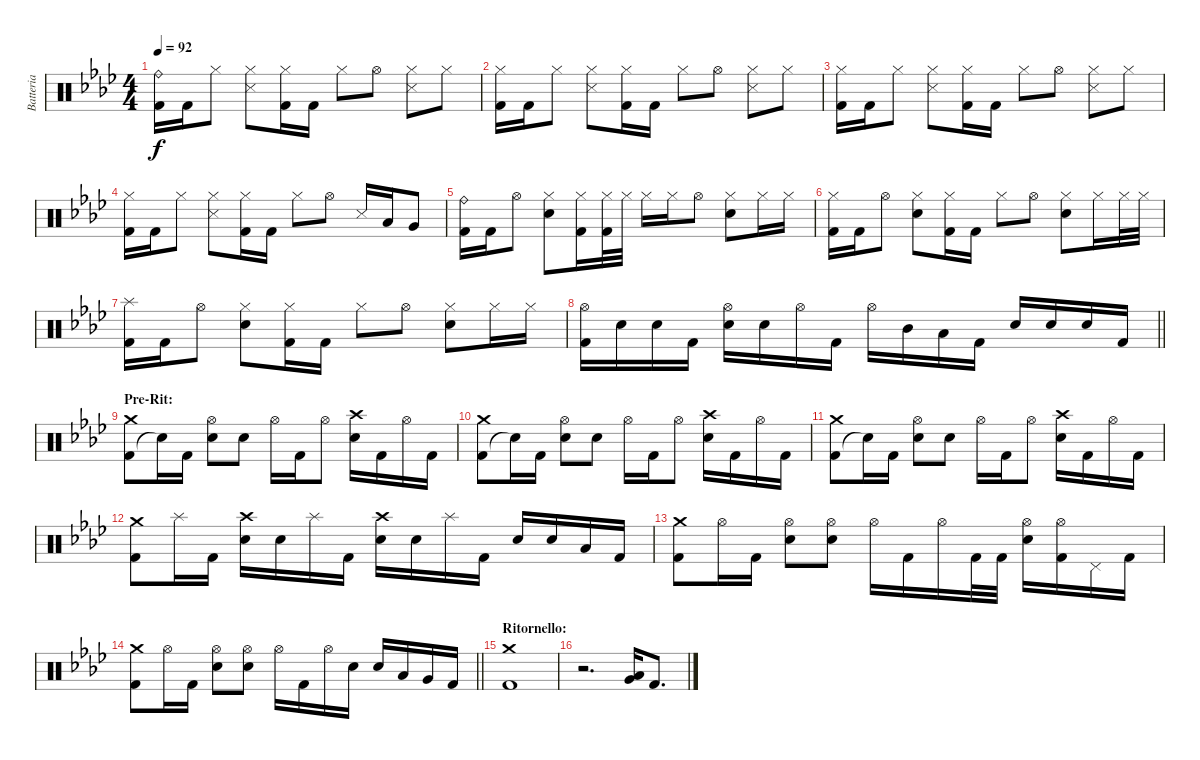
\track ("Batteria" "Batteria") {instrument percussion}
\staff {score}
\articulation defaults
\ts (4 4)
\tempo 92
\clef neutral
\ks fminor
("Kick (hit) 2" "Ride (bell)").16{dy f} "Kick (hit) 2".16 "Hi-Hat (closed)".8 ("Snare (side stick) 3" "Hi-Hat (closed)").8 ("Kick (hit) 2" "Hi-Hat (closed)").16 "Kick (hit) 2".16 "Hi-Hat (closed)".8 "Hi-Hat (open)".8 ("Snare (side stick) 3" "Hi-Hat (closed)").8 "Hi-Hat (closed)".8 |
("Kick (hit) 2" "Hi-Hat (closed)").16 "Kick (hit) 2".16 "Hi-Hat (closed)".8 ("Snare (side stick) 3" "Hi-Hat (closed)").8 ("Kick (hit) 2" "Hi-Hat (closed)").16 "Kick (hit) 2".16 "Hi-Hat (closed)".8 "Hi-Hat (open)".8 ("Snare (side stick) 3" "Hi-Hat (closed)").8 "Hi-Hat (closed)".8 |
("Kick (hit) 2" "Hi-Hat (closed)").16 "Kick (hit) 2".16 "Hi-Hat (closed)".8 ("Snare (side stick) 3" "Hi-Hat (closed)").8 ("Kick (hit) 2" "Hi-Hat (closed)").16 "Kick (hit) 2".16 "Hi-Hat (closed)".8 "Hi-Hat (open)".8 ("Snare (side stick) 3" "Hi-Hat (closed)").8 "Hi-Hat (closed)".8 |
("Kick (hit) 2" "Hi-Hat (closed)").16 "Kick (hit) 2".16 "Hi-Hat (closed)".8 ("Snare (side stick) 3" "Hi-Hat (closed)").8 ("Kick (hit) 2" "Hi-Hat (closed)").16 "Kick (hit) 2".16 "Hi-Hat (closed)".8 "Hi-Hat (open)".8 "Snare (side stick) 3".16 "Low Tom (hit)".16 "Very Low Tom (hit)".8 |
("Kick (hit) 2" "Ride (bell)").16 "Kick (hit) 2".16 "Hi-Hat (open)".8 ("Electric Snare (hit)" "Hi-Hat (closed)").8 ("Kick (hit) 2" "Hi-Hat (closed)").16 ("Kick (hit) 2" "Hi-Hat (closed)").32 "Hi-Hat (closed)".32 "Hi-Hat (closed)".16 "Hi-Hat (closed)".16 "Hi-Hat (open)".8 ("Electric Snare (hit)" "Hi-Hat (closed)").8 "Hi-Hat (closed)".16 "Hi-Hat (closed)".16 |
("Kick (hit) 2" "Hi-Hat (closed)").16 "Kick (hit) 2".16 "Hi-Hat (open)".8 ("Electric Snare (hit)" "Hi-Hat (closed)").8 ("Kick (hit) 2" "Hi-Hat (closed)").16 "Kick (hit) 2".16 "Hi-Hat (closed)".8 "Hi-Hat (open)".8 ("Electric Snare (hit)" "Hi-Hat (closed)").8 "Hi-Hat (closed)".16 "Hi-Hat (closed)".32 "Hi-Hat (closed)".32 |
("Kick (hit) 2" "Splash (hit)").16 "Kick (hit) 2".16 "Hi-Hat (open)".8 ("Electric Snare (hit)" "Hi-Hat (closed)").8 ("Kick (hit) 2" "Hi-Hat (closed)").16 "Kick (hit) 2".16 "Hi-Hat (closed)".8 "Hi-Hat (open)".8 ("Electric Snare (hit)" "Hi-Hat (closed)").8 "Hi-Hat (closed)".16 "Hi-Hat (closed)".16 |
\barLineRight lightlight
("Kick (hit) 2" "Hi-Hat (open)").16 "Electric Snare (hit)".16 "Electric Snare (hit)".16 "Kick (hit) 2".16 ("Electric Snare (hit)" "Hi-Hat (open)").16 "Electric Snare (hit)".16 "Hi-Hat (open)".16 "Kick (hit) 2".16 "Hi-Hat (open)".16 "Mid Tom (hit)".16 "Low Tom (hit)".16 "Kick (hit) 2".16 "Snare (hit) 2".16 "Snare (hit) 2".16 "Snare (hit) 2".16 "Kick (hit) 2".16 |
\section ("" "Pre-Rit:")
("Kick (hit) 2" "Crash medium (hit)").8 "Snare (hit)"{t}.16 "Kick (hit) 2".16 ("Snare (hit) 2" "Hi-Hat (open)").8 "Snare (hit) 2".8 "Hi-Hat (open)".16 "Kick (hit) 2".16 "Hi-Hat (open)".8 ("Snare (hit) 2" "Crash high (hit)").16 "Kick (hit) 2".16 "Hi-Hat (open)".16 "Kick (hit) 2".16 |
("Kick (hit) 2" "Crash medium (hit)").8 "Snare (hit)"{t}.16 "Kick (hit) 2".16 ("Snare (hit) 2" "Hi-Hat (open)").8 "Snare (hit) 2".8 "Hi-Hat (open)".16 "Kick (hit) 2".16 "Hi-Hat (open)".8 ("Snare (hit) 2" "Crash high (hit)").16 "Kick (hit) 2".16 "Hi-Hat (open)".16 "Kick (hit) 2".16 |
("Kick (hit) 2" "Crash medium (hit)").8 "Snare (hit)"{t}.16 "Kick (hit) 2".16 ("Snare (hit) 2" "Hi-Hat (open)").8 "Snare (hit) 2".8 "Hi-Hat (open)".16 "Kick (hit) 2".16 "Hi-Hat (open)".8 ("Snare (hit) 2" "Crash high (hit)").16 "Kick (hit) 2".16 "Hi-Hat (open)".16 "Kick (hit) 2".16 |
("Kick (hit) 2" "Crash medium (hit)").8 "Splash (hit)".16 "Kick (hit) 2".16 ("Snare (hit) 2" "Crash high (hit)").16 "Snare (hit) 2".16 "Splash (hit)".16 "Kick (hit) 2".16 ("Snare (hit) 2" "Crash high (hit)").16 "Snare (hit) 2".16 "Splash (hit)".16 "Kick (hit) 2".16 "Snare (hit) 2".16 "Snare (hit) 2".16 "Low Tom (hit)".16 "Kick (hit) 2".16 |
("Kick (hit) 2" "Crash medium (hit)").8 "Hi-Hat (open)".16 "Kick (hit) 2".16 ("Snare (hit) 2" "Hi-Hat (open)").8 ("Snare (hit) 2" "Hi-Hat (open)").8 "Hi-Hat (open)".16 "Kick (hit) 2".16 "Hi-Hat (open)".16 "Kick (hit) 2".32 "Kick (hit) 2".32 ("Snare (hit) 2" "Hi-Hat (open)").16 ("Kick (hit) 2" "Hi-Hat (open)").16 "Pedal Hi-Hat (hit)".16 "Kick (hit) 2".16 |
\barLineRight lightlight
("Kick (hit) 2" "Crash medium (hit)").8 "Hi-Hat (open)".16 "Kick (hit) 2".16 ("Snare (hit) 2" "Hi-Hat (open)").8 ("Snare (hit) 2" "Hi-Hat (open)").8 "Hi-Hat (open)".16 "Kick (hit) 2".16 "Hi-Hat (open)".16 "Snare (hit) 2".16 "Snare (hit) 2".16 "Low Tom (hit)".16 "Very Low Tom (hit)".16 "Kick (hit) 2".16 |
\section ("" "Ritornello:")
("Kick (hit) 2" "Crash medium (hit)").1 |
r.2{d} ("Very Low Tom (hit)" "Low Floor Tom (hit)").16 "Kick (hit) 2".8{d}
